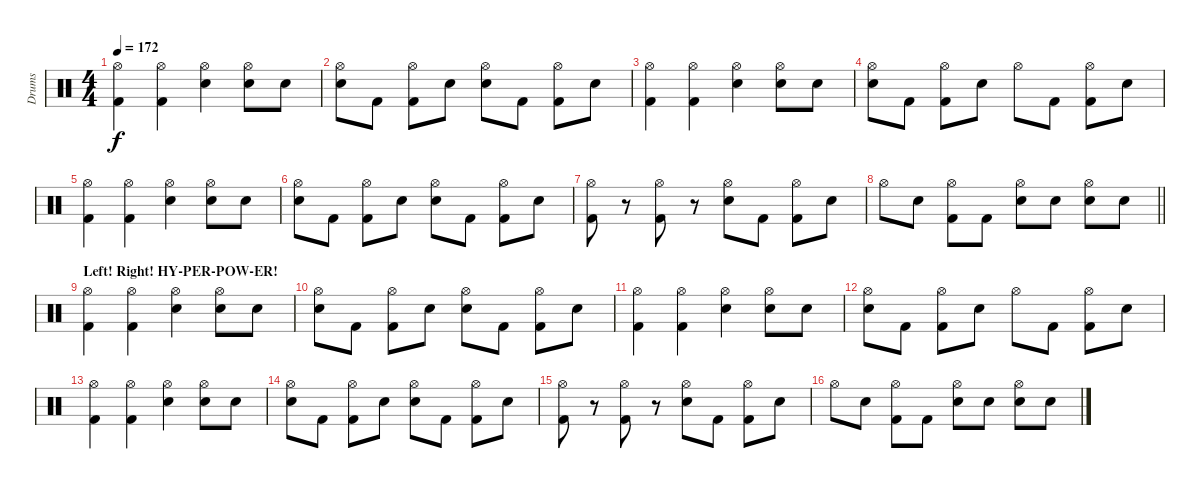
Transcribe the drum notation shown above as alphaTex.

\track ("Drums" "Drums") {instrument percussion}
\staff {score}
\articulation defaults
\ts (4 4)
\tempo 172
\clef neutral
\ks c
("Hi-Hat (open)" "Kick (hit) 2").4{dy f} ("Hi-Hat (open)" "Kick (hit) 2").4 ("Hi-Hat (open)" "Snare (hit) 2").4 ("Hi-Hat (open)" "Snare (hit) 2").8 "Snare (hit) 2".8 |
("Hi-Hat (open)" "Snare (hit) 2").8 "Kick (hit) 2".8 ("Hi-Hat (open)" "Kick (hit) 2").8 "Snare (hit) 2".8 ("Hi-Hat (open)" "Snare (hit) 2").8 "Kick (hit) 2".8 ("Hi-Hat (open)" "Kick (hit) 2").8 "Snare (hit) 2".8 |
("Hi-Hat (open)" "Kick (hit) 2").4 ("Hi-Hat (open)" "Kick (hit) 2").4 ("Hi-Hat (open)" "Snare (hit) 2").4 ("Hi-Hat (open)" "Snare (hit) 2").8 "Snare (hit) 2".8 |
("Hi-Hat (open)" "Snare (hit) 2").8 "Kick (hit) 2".8 ("Hi-Hat (open)" "Kick (hit) 2").8 "Snare (hit) 2".8 "Hi-Hat (open)".8 "Kick (hit) 2".8 ("Hi-Hat (open)" "Kick (hit) 2").8 "Snare (hit) 2".8 |
("Hi-Hat (open)" "Kick (hit) 2").4 ("Hi-Hat (open)" "Kick (hit) 2").4 ("Hi-Hat (open)" "Snare (hit) 2").4 ("Hi-Hat (open)" "Snare (hit) 2").8 "Snare (hit) 2".8 |
("Hi-Hat (open)" "Snare (hit) 2").8 "Kick (hit) 2".8 ("Hi-Hat (open)" "Kick (hit) 2").8 "Snare (hit) 2".8 ("Hi-Hat (open)" "Snare (hit) 2").8 "Kick (hit) 2".8 ("Hi-Hat (open)" "Kick (hit) 2").8 "Snare (hit) 2".8 |
("Hi-Hat (open)" "Kick (hit) 2").8 r.8 ("Hi-Hat (open)" "Kick (hit) 2").8 r.8 ("Hi-Hat (open)" "Snare (hit) 2").8 "Kick (hit) 2".8 ("Hi-Hat (open)" "Kick (hit) 2").8 "Snare (hit) 2".8 |
\barLineRight lightlight "Hi-Hat (open)".8 "Snare (hit) 2".8
("Hi-Hat (open)" "Kick (hit) 2").8 "Kick (hit) 2".8 ("Hi-Hat (open)" "Snare (hit) 2").8 "Snare (hit) 2".8 ("Hi-Hat (open)" "Snare (hit) 2").8 "Snare (hit) 2".8 |
\section ("" "Left! Right! HY-PER-POW-ER!")
("Hi-Hat (open)" "Kick (hit) 2").4 ("Hi-Hat (open)" "Kick (hit) 2").4 ("Hi-Hat (open)" "Snare (hit) 2").4 ("Hi-Hat (open)" "Snare (hit) 2").8 "Snare (hit) 2".8 |
("Hi-Hat (open)" "Snare (hit) 2").8 "Kick (hit) 2".8 ("Hi-Hat (open)" "Kick (hit) 2").8 "Snare (hit) 2".8 ("Hi-Hat (open)" "Snare (hit) 2").8 "Kick (hit) 2".8 ("Hi-Hat (open)" "Kick (hit) 2").8 "Snare (hit) 2".8 |
("Hi-Hat (open)" "Kick (hit) 2").4 ("Hi-Hat (open)" "Kick (hit) 2").4 ("Hi-Hat (open)" "Snare (hit) 2").4 ("Hi-Hat (open)" "Snare (hit) 2").8 "Snare (hit) 2".8 |
("Hi-Hat (open)" "Snare (hit) 2").8 "Kick (hit) 2".8 ("Hi-Hat (open)" "Kick (hit) 2").8 "Snare (hit) 2".8 "Hi-Hat (open)".8 "Kick (hit) 2".8 ("Hi-Hat (open)" "Kick (hit) 2").8 "Snare (hit) 2".8 |
("Hi-Hat (open)" "Kick (hit) 2").4 ("Hi-Hat (open)" "Kick (hit) 2").4 ("Hi-Hat (open)" "Snare (hit) 2").4 ("Hi-Hat (open)" "Snare (hit) 2").8 "Snare (hit) 2".8 |
("Hi-Hat (open)" "Snare (hit) 2").8 "Kick (hit) 2".8 ("Hi-Hat (open)" "Kick (hit) 2").8 "Snare (hit) 2".8 ("Hi-Hat (open)" "Snare (hit) 2").8 "Kick (hit) 2".8 ("Hi-Hat (open)" "Kick (hit) 2").8 "Snare (hit) 2".8 |
("Hi-Hat (open)" "Kick (hit) 2").8 r.8 ("Hi-Hat (open)" "Kick (hit) 2").8 r.8 ("Hi-Hat (open)" "Snare (hit) 2").8 "Kick (hit) 2".8 ("Hi-Hat (open)" "Kick (hit) 2").8 "Snare (hit) 2".8 |
"Hi-Hat (open)".8 "Snare (hit) 2".8 ("Hi-Hat (open)" "Kick (hit) 2").8 "Kick (hit) 2".8 ("Hi-Hat (open)" "Snare (hit) 2").8 "Snare (hit) 2".8 ("Hi-Hat (open)" "Snare (hit) 2").8 "Snare (hit) 2".8
